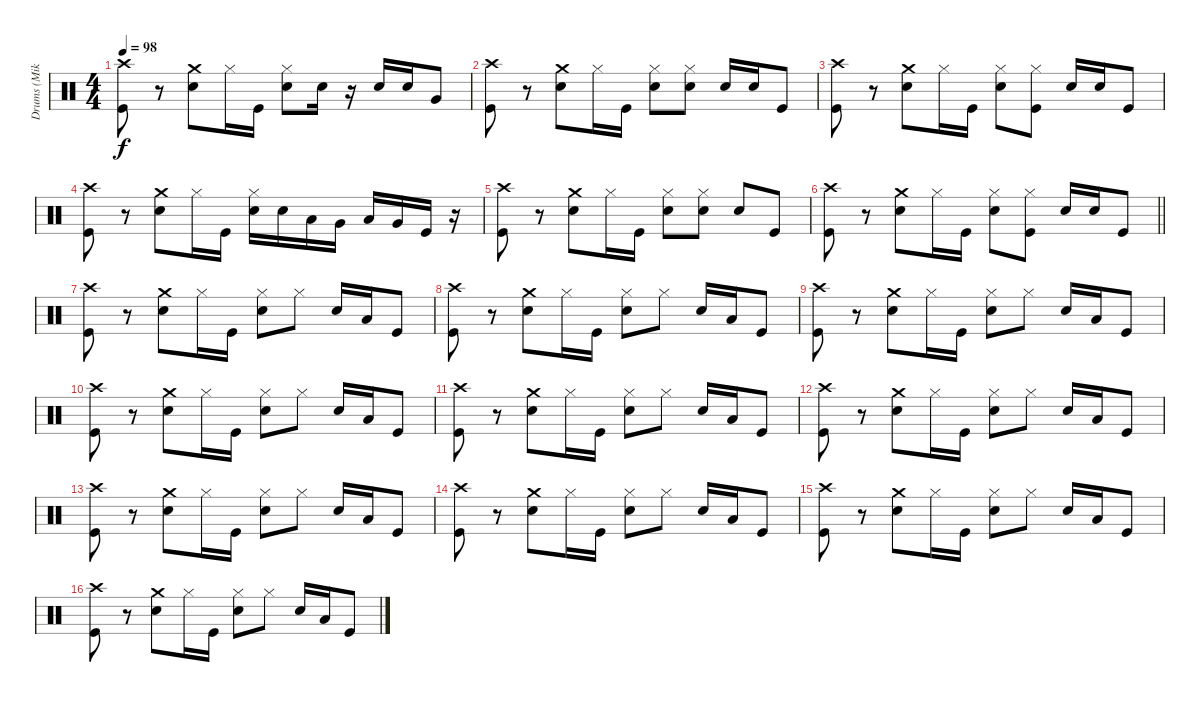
\track ("Drums (Mike Kellie)" "Drums (Mik") {instrument percussion}
\staff {score}
\articulation defaults
\ts (4 4)
\tempo 98
\clef neutral
\ks c
("Crash high (hit)" "Kick (hit)").8{dy f} r.8 ("Crash medium (hit)" "Electric Snare (hit)").8 "Hi-Hat (closed)".16 "Kick (hit)".16 ("Hi-Hat (closed)" "Electric Snare (hit)").8 "Electric Snare (hit)".16 r.16 "Electric Snare (hit)".16 "Electric Snare (hit)".16 "Very Low Tom (hit)".8 |
("Crash high (hit)" "Kick (hit)").8 r.8 ("Crash medium (hit)" "Electric Snare (hit)").8 "Hi-Hat (closed)".16 "Kick (hit)".16 ("Hi-Hat (closed)" "Electric Snare (hit)").8 ("Hi-Hat (closed)" "Electric Snare (hit)").8 "Electric Snare (hit)".16 "Electric Snare (hit)".16 "Kick (hit)".8 |
("Crash high (hit)" "Kick (hit)").8 r.8 ("Crash medium (hit)" "Electric Snare (hit)").8 "Hi-Hat (closed)".16 "Kick (hit)".16 ("Hi-Hat (closed)" "Electric Snare (hit)").8 ("Hi-Hat (closed)" "Kick (hit)").8 "Electric Snare (hit)".16 "Electric Snare (hit)".16 "Kick (hit)".8 |
("Crash high (hit)" "Kick (hit)").8 r.8 ("Crash medium (hit)" "Electric Snare (hit)").8 "Hi-Hat (closed)".16 "Kick (hit)".16 ("Hi-Hat (closed)" "Electric Snare (hit)").16 "Electric Snare (hit)".16 "Low Tom (hit)".16 "Very Low Tom (hit)".16 "Low Tom (hit)".16 "Very Low Tom (hit)".16 "Kick (hit)".16 r.16 |
("Crash high (hit)" "Kick (hit)").8 r.8 ("Crash medium (hit)" "Electric Snare (hit)").8 "Hi-Hat (closed)".16 "Kick (hit)".16 ("Hi-Hat (closed)" "Electric Snare (hit)").8 ("Hi-Hat (closed)" "Electric Snare (hit)").8 "Electric Snare (hit)".8 "Kick (hit)".8 |
\barLineRight lightlight
("Crash high (hit)" "Kick (hit)").8 r.8 ("Crash medium (hit)" "Electric Snare (hit)").8 "Hi-Hat (closed)".16 "Kick (hit)".16 ("Hi-Hat (closed)" "Electric Snare (hit)").8 ("Hi-Hat (closed)" "Kick (hit)").8 "Electric Snare (hit)".16 "Electric Snare (hit)".16 "Kick (hit)".8 |
("Crash high (hit)" "Kick (hit)").8 r.8 ("Crash medium (hit)" "Electric Snare (hit)").8 "Hi-Hat (closed)".16 "Kick (hit)".16 ("Hi-Hat (closed)" "Electric Snare (hit)").8 "Hi-Hat (closed)".8 "Electric Snare (hit)".16 "Low Tom (hit)".16 "Kick (hit)".8 |
("Crash high (hit)" "Kick (hit)").8 r.8 ("Crash medium (hit)" "Electric Snare (hit)").8 "Hi-Hat (closed)".16 "Kick (hit)".16 ("Hi-Hat (closed)" "Electric Snare (hit)").8 "Hi-Hat (closed)".8 "Electric Snare (hit)".16 "Low Tom (hit)".16 "Kick (hit)".8 |
("Crash high (hit)" "Kick (hit)").8 r.8 ("Crash medium (hit)" "Electric Snare (hit)").8 "Hi-Hat (closed)".16 "Kick (hit)".16 ("Hi-Hat (closed)" "Electric Snare (hit)").8 "Hi-Hat (closed)".8 "Electric Snare (hit)".16 "Low Tom (hit)".16 "Kick (hit)".8 |
("Crash high (hit)" "Kick (hit)").8 r.8 ("Crash medium (hit)" "Electric Snare (hit)").8 "Hi-Hat (closed)".16 "Kick (hit)".16 ("Hi-Hat (closed)" "Electric Snare (hit)").8 "Hi-Hat (closed)".8 "Electric Snare (hit)".16 "Low Tom (hit)".16 "Kick (hit)".8 |
("Crash high (hit)" "Kick (hit)").8 r.8 ("Crash medium (hit)" "Electric Snare (hit)").8 "Hi-Hat (closed)".16 "Kick (hit)".16 ("Hi-Hat (closed)" "Electric Snare (hit)").8 "Hi-Hat (closed)".8 "Electric Snare (hit)".16 "Low Tom (hit)".16 "Kick (hit)".8 |
("Crash high (hit)" "Kick (hit)").8 r.8 ("Crash medium (hit)" "Electric Snare (hit)").8 "Hi-Hat (closed)".16 "Kick (hit)".16 ("Hi-Hat (closed)" "Electric Snare (hit)").8 "Hi-Hat (closed)".8 "Electric Snare (hit)".16 "Low Tom (hit)".16 "Kick (hit)".8 |
("Crash high (hit)" "Kick (hit)").8 r.8 ("Crash medium (hit)" "Electric Snare (hit)").8 "Hi-Hat (closed)".16 "Kick (hit)".16 ("Hi-Hat (closed)" "Electric Snare (hit)").8 "Hi-Hat (closed)".8 "Electric Snare (hit)".16 "Low Tom (hit)".16 "Kick (hit)".8 |
("Crash high (hit)" "Kick (hit)").8 r.8 ("Crash medium (hit)" "Electric Snare (hit)").8 "Hi-Hat (closed)".16 "Kick (hit)".16 ("Hi-Hat (closed)" "Electric Snare (hit)").8 "Hi-Hat (closed)".8 "Electric Snare (hit)".16 "Low Tom (hit)".16 "Kick (hit)".8 |
("Crash high (hit)" "Kick (hit)").8 r.8 ("Crash medium (hit)" "Electric Snare (hit)").8 "Hi-Hat (closed)".16 "Kick (hit)".16 ("Hi-Hat (closed)" "Electric Snare (hit)").8 "Hi-Hat (closed)".8 "Electric Snare (hit)".16 "Low Tom (hit)".16 "Kick (hit)".8 |
("Crash high (hit)" "Kick (hit)").8 r.8 ("Crash medium (hit)" "Electric Snare (hit)").8 "Hi-Hat (closed)".16 "Kick (hit)".16 ("Hi-Hat (closed)" "Electric Snare (hit)").8 "Hi-Hat (closed)".8 "Electric Snare (hit)".16 "Low Tom (hit)".16 "Kick (hit)".8
